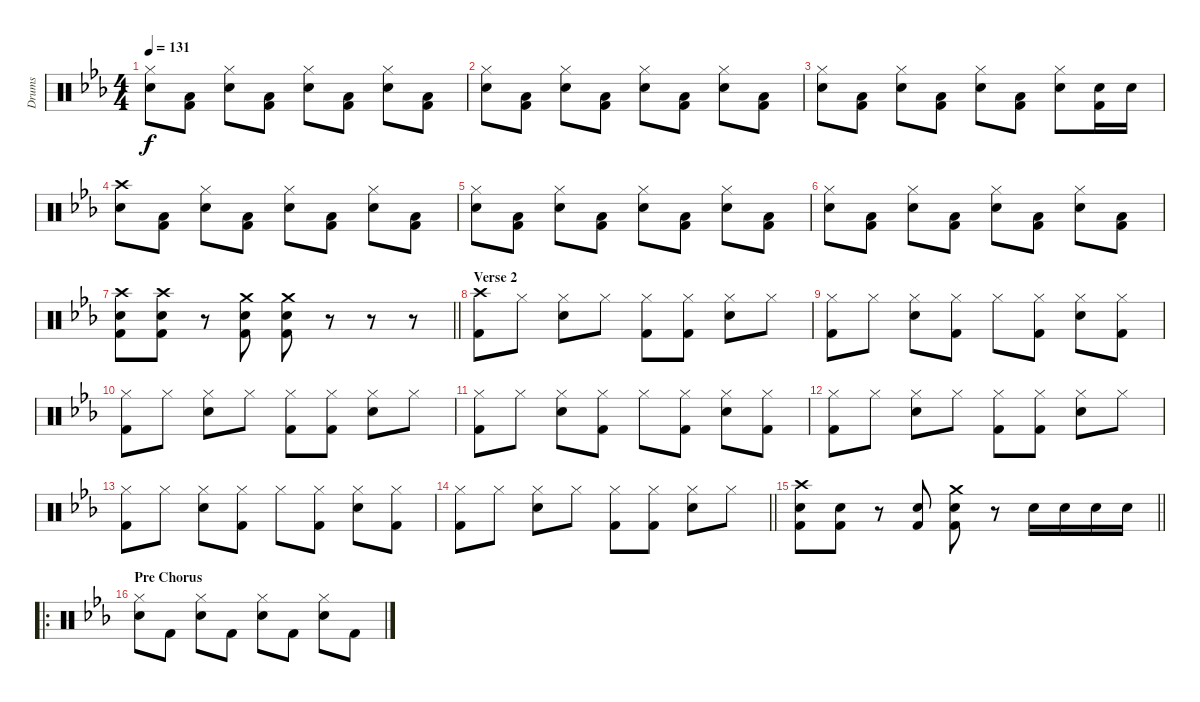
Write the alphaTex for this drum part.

\track ("Drums" "Drums") {instrument percussion}
\staff
\articulation defaults
\ts (4 4)
\tempo 131
\clef neutral
\ks eb
("Snare (hit) 2" "Hi-Hat (closed)").8{dy f} ("Low Floor Tom (hit)" "Kick (hit) 2").8 ("Snare (hit) 2" "Hi-Hat (closed)").8 ("Low Floor Tom (hit)" "Kick (hit) 2").8 ("Snare (hit) 2" "Hi-Hat (closed)").8 ("Low Floor Tom (hit)" "Kick (hit) 2").8 ("Snare (hit) 2" "Hi-Hat (closed)").8 ("Low Floor Tom (hit)" "Kick (hit) 2").8 |
("Snare (hit) 2" "Hi-Hat (closed)").8 ("Low Floor Tom (hit)" "Kick (hit) 2").8 ("Snare (hit) 2" "Hi-Hat (closed)").8 ("Low Floor Tom (hit)" "Kick (hit) 2").8 ("Snare (hit) 2" "Hi-Hat (closed)").8 ("Low Floor Tom (hit)" "Kick (hit) 2").8 ("Snare (hit) 2" "Hi-Hat (closed)").8 ("Low Floor Tom (hit)" "Kick (hit) 2").8 |
("Snare (hit) 2" "Hi-Hat (closed)").8 ("Low Floor Tom (hit)" "Kick (hit) 2").8 ("Snare (hit) 2" "Hi-Hat (closed)").8 ("Low Floor Tom (hit)" "Kick (hit) 2").8 ("Snare (hit) 2" "Hi-Hat (closed)").8 ("Low Floor Tom (hit)" "Kick (hit) 2").8 ("Snare (hit) 2" "Hi-Hat (closed)").8 ("Snare (hit) 2" "Kick (hit) 2").16 "Snare (hit) 2".16 |
("Crash high (hit)" "Snare (hit) 2").8 ("Low Floor Tom (hit)" "Kick (hit) 2").8 ("Snare (hit) 2" "Hi-Hat (closed)").8 ("Low Floor Tom (hit)" "Kick (hit) 2").8 ("Snare (hit) 2" "Hi-Hat (closed)").8 ("Low Floor Tom (hit)" "Kick (hit) 2").8 ("Snare (hit) 2" "Hi-Hat (closed)").8 ("Low Floor Tom (hit)" "Kick (hit) 2").8 |
("Snare (hit) 2" "Hi-Hat (closed)").8 ("Low Floor Tom (hit)" "Kick (hit) 2").8 ("Snare (hit) 2" "Hi-Hat (closed)").8 ("Low Floor Tom (hit)" "Kick (hit) 2").8 ("Snare (hit) 2" "Hi-Hat (closed)").8 ("Low Floor Tom (hit)" "Kick (hit) 2").8 ("Snare (hit) 2" "Hi-Hat (closed)").8 ("Low Floor Tom (hit)" "Kick (hit) 2").8 |
("Snare (hit) 2" "Hi-Hat (closed)").8 ("Low Floor Tom (hit)" "Kick (hit) 2").8 ("Snare (hit) 2" "Hi-Hat (closed)").8 ("Low Floor Tom (hit)" "Kick (hit) 2").8 ("Snare (hit) 2" "Hi-Hat (closed)").8 ("Low Floor Tom (hit)" "Kick (hit) 2").8 ("Snare (hit) 2" "Hi-Hat (closed)").8 ("Low Floor Tom (hit)" "Kick (hit) 2").8 |
\barLineRight lightlight
("Crash high (hit)" "Snare (hit) 2" "Kick (hit) 2").8 ("Crash high (hit)" "Snare (hit) 2" "Kick (hit) 2").8 r.8 ("Crash medium (hit)" "Snare (hit) 2" "Kick (hit) 2").8 ("Crash medium (hit)" "Snare (hit) 2" "Kick (hit) 2").8 r.8 r.8 r.8 |
\section ("" "Verse 2")
("Crash high (hit)" "Kick (hit) 2").8 "Hi-Hat (closed)".8 ("Snare (hit) 2" "Hi-Hat (closed)").8 "Hi-Hat (closed)".8 ("Hi-Hat (closed)" "Kick (hit) 2").8 ("Hi-Hat (closed)" "Kick (hit) 2").8 ("Snare (hit) 2" "Hi-Hat (closed)").8 "Hi-Hat (closed)".8 |
("Hi-Hat (closed)" "Kick (hit) 2").8 "Hi-Hat (closed)".8 ("Snare (hit) 2" "Hi-Hat (closed)").8 ("Hi-Hat (closed)" "Kick (hit) 2").8 "Hi-Hat (closed)".8 ("Hi-Hat (closed)" "Kick (hit) 2").8 ("Snare (hit) 2" "Hi-Hat (closed)").8 ("Hi-Hat (closed)" "Kick (hit) 2").8 |
("Hi-Hat (closed)" "Kick (hit) 2").8 "Hi-Hat (closed)".8 ("Snare (hit) 2" "Hi-Hat (closed)").8 "Hi-Hat (closed)".8 ("Hi-Hat (closed)" "Kick (hit) 2").8 ("Hi-Hat (closed)" "Kick (hit) 2").8 ("Snare (hit) 2" "Hi-Hat (closed)").8 "Hi-Hat (closed)".8 |
("Hi-Hat (closed)" "Kick (hit) 2").8 "Hi-Hat (closed)".8 ("Snare (hit) 2" "Hi-Hat (closed)").8 ("Hi-Hat (closed)" "Kick (hit) 2").8 "Hi-Hat (closed)".8 ("Hi-Hat (closed)" "Kick (hit) 2").8 ("Snare (hit) 2" "Hi-Hat (closed)").8 ("Hi-Hat (closed)" "Kick (hit) 2").8 |
("Hi-Hat (closed)" "Kick (hit) 2").8 "Hi-Hat (closed)".8 ("Snare (hit) 2" "Hi-Hat (closed)").8 "Hi-Hat (closed)".8 ("Hi-Hat (closed)" "Kick (hit) 2").8 ("Hi-Hat (closed)" "Kick (hit) 2").8 ("Snare (hit) 2" "Hi-Hat (closed)").8 "Hi-Hat (closed)".8 |
("Hi-Hat (closed)" "Kick (hit) 2").8 "Hi-Hat (closed)".8 ("Snare (hit) 2" "Hi-Hat (closed)").8 ("Hi-Hat (closed)" "Kick (hit) 2").8 "Hi-Hat (closed)".8 ("Hi-Hat (closed)" "Kick (hit) 2").8 ("Snare (hit) 2" "Hi-Hat (closed)").8 ("Hi-Hat (closed)" "Kick (hit) 2").8 |
\barLineRight lightlight
("Hi-Hat (closed)" "Kick (hit) 2").8 "Hi-Hat (closed)".8 ("Snare (hit) 2" "Hi-Hat (closed)").8 "Hi-Hat (closed)".8 ("Hi-Hat (closed)" "Kick (hit) 2").8 ("Hi-Hat (closed)" "Kick (hit) 2").8 ("Snare (hit) 2" "Hi-Hat (closed)").8 "Hi-Hat (closed)".8 |
\barLineRight lightlight
("Crash high (hit)" "Snare (hit) 2" "Kick (hit) 2").8 ("Snare (hit) 2" "Kick (hit) 2").8 r.8 ("Snare (hit) 2" "Kick (hit) 2").8 ("Crash medium (hit)" "Snare (hit) 2" "Kick (hit) 2").8 r.8 "Snare (hit) 2".16 "Snare (hit) 2".16 "Snare (hit) 2".16 "Snare (hit) 2".16 |
\ro
\section ("" "Pre Chorus")
("Snare (hit) 2" "Hi-Hat (closed)").8 "Kick (hit) 2".8 ("Snare (hit) 2" "Hi-Hat (closed)").8 "Kick (hit) 2".8 ("Snare (hit) 2" "Hi-Hat (closed)").8 "Kick (hit) 2".8 ("Snare (hit) 2" "Hi-Hat (closed)").8 "Kick (hit) 2".8
